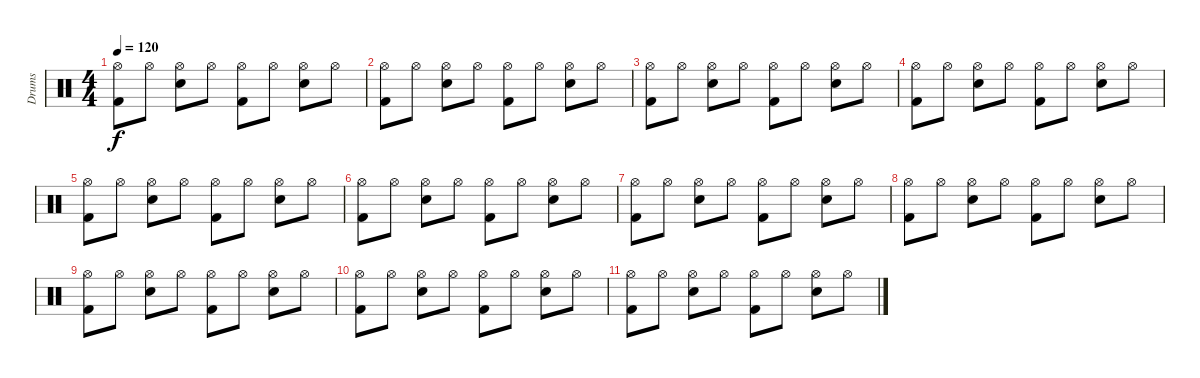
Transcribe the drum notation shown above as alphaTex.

\track ("Drums" "Drums") {instrument percussion}
\staff {score}
\articulation defaults
\ts (4 4)
\tempo 120
\clef neutral
\ks c
("Hi-Hat (open)" "Kick (hit) 2").8{dy f} "Hi-Hat (open)".8 ("Hi-Hat (open)" "Snare (hit) 2").8 "Hi-Hat (open)".8 ("Hi-Hat (open)" "Kick (hit) 2").8 "Hi-Hat (open)".8 ("Hi-Hat (open)" "Snare (hit) 2").8 "Hi-Hat (open)".8 |
("Hi-Hat (open)" "Kick (hit) 2").8 "Hi-Hat (open)".8 ("Hi-Hat (open)" "Snare (hit) 2").8 "Hi-Hat (open)".8 ("Hi-Hat (open)" "Kick (hit) 2").8 "Hi-Hat (open)".8 ("Hi-Hat (open)" "Snare (hit) 2").8 "Hi-Hat (open)".8 |
("Hi-Hat (open)" "Kick (hit) 2").8 "Hi-Hat (open)".8 ("Hi-Hat (open)" "Snare (hit) 2").8 "Hi-Hat (open)".8 ("Hi-Hat (open)" "Kick (hit) 2").8 "Hi-Hat (open)".8 ("Hi-Hat (open)" "Snare (hit) 2").8 "Hi-Hat (open)".8 |
("Hi-Hat (open)" "Kick (hit) 2").8 "Hi-Hat (open)".8 ("Hi-Hat (open)" "Snare (hit) 2").8 "Hi-Hat (open)".8 ("Hi-Hat (open)" "Kick (hit) 2").8 "Hi-Hat (open)".8 ("Hi-Hat (open)" "Snare (hit) 2").8 "Hi-Hat (open)".8 |
("Hi-Hat (open)" "Kick (hit) 2").8 "Hi-Hat (open)".8 ("Hi-Hat (open)" "Snare (hit) 2").8 "Hi-Hat (open)".8 ("Hi-Hat (open)" "Kick (hit) 2").8 "Hi-Hat (open)".8 ("Hi-Hat (open)" "Snare (hit) 2").8 "Hi-Hat (open)".8 |
("Hi-Hat (open)" "Kick (hit) 2").8 "Hi-Hat (open)".8 ("Hi-Hat (open)" "Snare (hit) 2").8 "Hi-Hat (open)".8 ("Hi-Hat (open)" "Kick (hit) 2").8 "Hi-Hat (open)".8 ("Hi-Hat (open)" "Snare (hit) 2").8 "Hi-Hat (open)".8 |
("Hi-Hat (open)" "Kick (hit) 2").8 "Hi-Hat (open)".8 ("Hi-Hat (open)" "Snare (hit) 2").8 "Hi-Hat (open)".8 ("Hi-Hat (open)" "Kick (hit) 2").8 "Hi-Hat (open)".8 ("Hi-Hat (open)" "Snare (hit) 2").8 "Hi-Hat (open)".8 |
("Hi-Hat (open)" "Kick (hit) 2").8 "Hi-Hat (open)".8 ("Hi-Hat (open)" "Snare (hit) 2").8 "Hi-Hat (open)".8 ("Hi-Hat (open)" "Kick (hit) 2").8 "Hi-Hat (open)".8 ("Hi-Hat (open)" "Snare (hit) 2").8 "Hi-Hat (open)".8 |
("Hi-Hat (open)" "Kick (hit) 2").8 "Hi-Hat (open)".8 ("Hi-Hat (open)" "Snare (hit) 2").8 "Hi-Hat (open)".8 ("Hi-Hat (open)" "Kick (hit) 2").8 "Hi-Hat (open)".8 ("Hi-Hat (open)" "Snare (hit) 2").8 "Hi-Hat (open)".8 |
("Hi-Hat (open)" "Kick (hit) 2").8 "Hi-Hat (open)".8 ("Hi-Hat (open)" "Snare (hit) 2").8 "Hi-Hat (open)".8 ("Hi-Hat (open)" "Kick (hit) 2").8 "Hi-Hat (open)".8 ("Hi-Hat (open)" "Snare (hit) 2").8 "Hi-Hat (open)".8 |
("Hi-Hat (open)" "Kick (hit) 2").8 "Hi-Hat (open)".8 ("Hi-Hat (open)" "Snare (hit) 2").8 "Hi-Hat (open)".8 ("Hi-Hat (open)" "Kick (hit) 2").8 "Hi-Hat (open)".8 ("Hi-Hat (open)" "Snare (hit) 2").8 "Hi-Hat (open)".8
